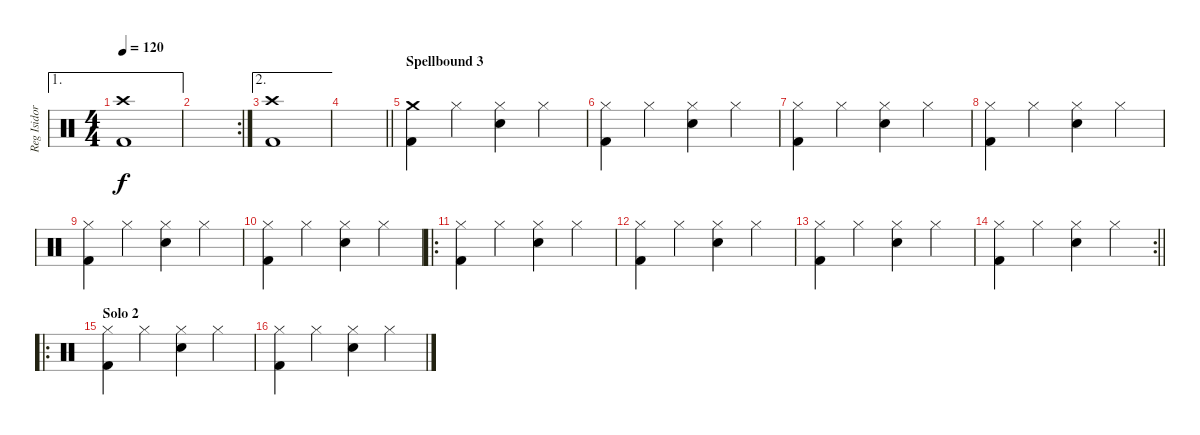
\track ("Reg Isidor" "Reg Isidor") {instrument percussion}
\staff {score}
\articulation defaults
\ae 1
\ts (4 4)
\tempo 120
\clef neutral
\ks c
("Crash high (hit)" "Kick (hit) 2").1{dy f} |
\rc 2
|
\ae 2
("Crash high (hit)" "Kick (hit) 2").1 |
\barLineRight lightlight
|
\section ("" "Spellbound 3")
("Crash medium (hit)" "Kick (hit) 2").4 "Hi-Hat (closed)".4 ("Hi-Hat (closed)" "Snare (hit) 2").4 "Hi-Hat (closed)".4 |
("Hi-Hat (closed)" "Kick (hit) 2").4 "Hi-Hat (closed)".4 ("Hi-Hat (closed)" "Snare (hit) 2").4 "Hi-Hat (closed)".4 |
("Hi-Hat (closed)" "Kick (hit) 2").4 "Hi-Hat (closed)".4 ("Hi-Hat (closed)" "Snare (hit) 2").4 "Hi-Hat (closed)".4 |
("Hi-Hat (closed)" "Kick (hit) 2").4 "Hi-Hat (closed)".4 ("Hi-Hat (closed)" "Snare (hit) 2").4 "Hi-Hat (closed)".4 |
("Hi-Hat (closed)" "Kick (hit) 2").4 "Hi-Hat (closed)".4 ("Hi-Hat (closed)" "Snare (hit) 2").4 "Hi-Hat (closed)".4 |
("Hi-Hat (closed)" "Kick (hit) 2").4 "Hi-Hat (closed)".4 ("Hi-Hat (closed)" "Snare (hit) 2").4 "Hi-Hat (closed)".4 |
\ro
("Hi-Hat (closed)" "Kick (hit) 2").4 "Hi-Hat (closed)".4 ("Hi-Hat (closed)" "Snare (hit) 2").4 "Hi-Hat (closed)".4 |
("Hi-Hat (closed)" "Kick (hit) 2").4 "Hi-Hat (closed)".4 ("Hi-Hat (closed)" "Snare (hit) 2").4 "Hi-Hat (closed)".4 |
("Hi-Hat (closed)" "Kick (hit) 2").4 "Hi-Hat (closed)".4 ("Hi-Hat (closed)" "Snare (hit) 2").4 "Hi-Hat (closed)".4 |
\rc 2
\barLineRight lightlight
("Hi-Hat (closed)" "Kick (hit) 2").4 "Hi-Hat (closed)".4 ("Hi-Hat (closed)" "Snare (hit) 2").4 "Hi-Hat (closed)".4 |
\ro
\section ("" "Solo 2")
("Hi-Hat (closed)" "Kick (hit) 2").4 "Hi-Hat (closed)".4 ("Hi-Hat (closed)" "Snare (hit) 2").4 "Hi-Hat (closed)".4 |
("Hi-Hat (closed)" "Kick (hit) 2").4 "Hi-Hat (closed)".4 ("Hi-Hat (closed)" "Snare (hit) 2").4 "Hi-Hat (closed)".4
